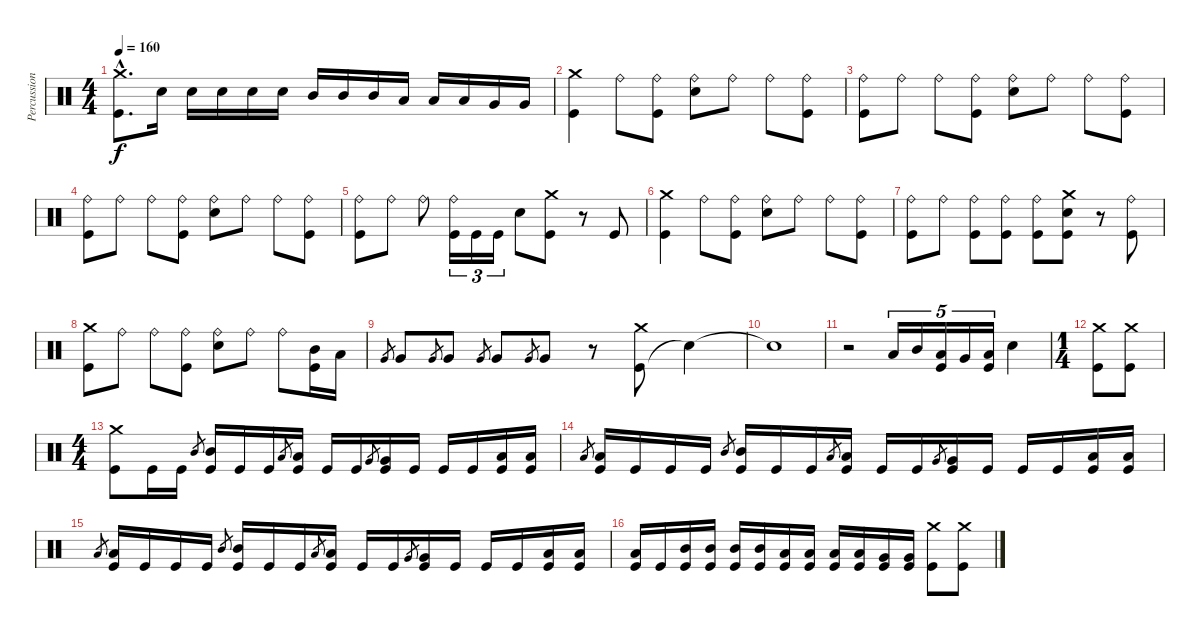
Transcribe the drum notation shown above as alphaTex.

\track ("Percussions" "Percussion") {instrument percussion}
\staff {score}
\articulation defaults
\ts (4 4)
\tempo 160
\clef neutral
\ks c
("Kick (hit)"{hac} "Crash medium (hit)"{hac}).8{d dy f} "Electric Snare (hit)".16 "Electric Snare (hit)".16 "Electric Snare (hit)".16 "Electric Snare (hit)".16 "Electric Snare (hit)".16 "Mid Tom (hit)".16 "Mid Tom (hit)".16 "Mid Tom (hit)".16 "Low Tom (hit)".16 "Low Tom (hit)".16 "Low Tom (hit)".16 "Very Low Tom (hit)".16 "Very Low Tom (hit)".16 |
("Kick (hit)" "Crash medium (hit)").4 "Ride (bell)".8 ("Kick (hit)" "Ride (bell)").8 ("Electric Snare (hit)" "Ride (bell)").8 "Ride (bell)".8 "Ride (bell)".8 ("Kick (hit)" "Ride (bell)").8 |
("Kick (hit)" "Ride (bell)").8 "Ride (bell)".8 "Ride (bell)".8 ("Kick (hit)" "Ride (bell)").8 ("Electric Snare (hit)" "Ride (bell)").8 "Ride (bell)".8 "Ride (bell)".8 ("Kick (hit)" "Ride (bell)").8 |
("Kick (hit)" "Ride (bell)").8 "Ride (bell)".8 "Ride (bell)".8 ("Kick (hit)" "Ride (bell)").8 ("Electric Snare (hit)" "Ride (bell)").8 "Ride (bell)".8 "Ride (bell)".8 ("Kick (hit)" "Ride (bell)").8 |
("Kick (hit)" "Ride (bell)").8 "Ride (bell)".8 "Ride (bell)".8 ("Kick (hit)" "Ride (bell)").16{tu (3 2)} "Kick (hit)".16{tu (3 2)} "Kick (hit)".16{tu (3 2)} "Electric Snare (hit)".8 ("Kick (hit)" "Crash medium (hit)").8 r.8 "Kick (hit)".8 |
("Kick (hit)" "Crash medium (hit)").4 "Ride (bell)".8 ("Kick (hit)" "Ride (bell)").8 ("Electric Snare (hit)" "Ride (bell)").8 "Ride (bell)".8 "Ride (bell)".8 ("Kick (hit)" "Ride (bell)").8 |
("Kick (hit)" "Ride (bell)").8 "Ride (bell)".8 ("Kick (hit)" "Ride (bell)").8 ("Kick (hit)" "Ride (bell)").8 ("Kick (hit)" "Ride (bell)").8 ("Kick (hit)" "Electric Snare (hit)" "Crash medium (hit)").8 r.8 ("Kick (hit)" "Ride (bell)").8 |
("Kick (hit)" "Crash medium (hit)").8 "Ride (bell)".8 "Ride (bell)".8 ("Kick (hit)" "Ride (bell)").8 ("Electric Snare (hit)" "Ride (bell)").8 "Ride (bell)".8 "Ride (bell)".8 ("Kick (hit)" "Mid Tom (hit)").16 "Low Tom (hit)".16 |
"Very Low Tom (hit)".8{gr} "Very Low Tom (hit)".8 "Very Low Tom (hit)".8{gr} "Very Low Tom (hit)".8 "Very Low Tom (hit)".8{gr} "Very Low Tom (hit)".8 "Very Low Tom (hit)".8{gr} "Very Low Tom (hit)".8 r.8 ("Kick (hit)" "Crash medium (hit)").8 "Snare (hit)"{t}.4 |
"Snare (hit)"{t}.1 |
r.2 "Low Tom (hit)".16{tu (5 4)} "Mid Tom (hit)".16{tu (5 4)} ("Kick (hit)" "Low Tom (hit)").16{tu (5 4)} "Very Low Tom (hit)".16{tu (5 4)} ("Kick (hit)" "Low Floor Tom (hit)").16{tu (5 4)} "Electric Snare (hit)".4 |
\ts (1 4)
("Kick (hit)" "Crash medium (hit)").8 ("Kick (hit)" "Crash medium (hit)").8 |
\ts (4 4)
("Kick (hit)" "Crash medium (hit)").8 "Kick (hit)".16 "Kick (hit)".16 "Mid Tom (hit)".8{gr} ("Kick (hit)" "Mid Tom (hit)").16 "Kick (hit)".16 "Kick (hit)".16 "Low Tom (hit)".8{gr} ("Kick (hit)" "Low Tom (hit)").16 "Kick (hit)".16 "Kick (hit)".16 "Very Low Tom (hit)".8{gr} ("Kick (hit)" "Very Low Tom (hit)").16 "Kick (hit)".16 "Kick (hit)".16 "Kick (hit)".16 ("Kick (hit)" "Low Floor Tom (hit)").16 ("Kick (hit)" "Low Floor Tom (hit)").16 |
"Low Floor Tom (hit)".8{gr} ("Kick (hit)" "Low Floor Tom (hit)").16 "Kick (hit)".16 "Kick (hit)".16 "Kick (hit)".16 "Mid Tom (hit)".8{gr} ("Kick (hit)" "Mid Tom (hit)").16 "Kick (hit)".16 "Kick (hit)".16 "Low Tom (hit)".8{gr} ("Kick (hit)" "Low Tom (hit)").16 "Kick (hit)".16 "Kick (hit)".16 "Very Low Tom (hit)".8{gr} ("Kick (hit)" "Very Low Tom (hit)").16 "Kick (hit)".16 "Kick (hit)".16 "Kick (hit)".16 ("Kick (hit)" "Low Floor Tom (hit)").16 ("Kick (hit)" "Low Floor Tom (hit)").16 |
"Low Floor Tom (hit)".8{gr} ("Kick (hit)" "Low Floor Tom (hit)").16 "Kick (hit)".16 "Kick (hit)".16 "Kick (hit)".16 "Mid Tom (hit)".8{gr} ("Kick (hit)" "Mid Tom (hit)").16 "Kick (hit)".16 "Kick (hit)".16 "Low Tom (hit)".8{gr} ("Kick (hit)" "Low Tom (hit)").16 "Kick (hit)".16 "Kick (hit)".16 "Very Low Tom (hit)".8{gr} ("Kick (hit)" "Very Low Tom (hit)").16 "Kick (hit)".16 "Kick (hit)".16 "Kick (hit)".16 ("Kick (hit)" "Low Floor Tom (hit)").16 ("Kick (hit)" "Low Floor Tom (hit)").16 |
("Kick (hit)" "Low Floor Tom (hit)").16 "Kick (hit)".16 ("Kick (hit)" "Mid Tom (hit)").16 ("Kick (hit)" "Mid Tom (hit)").16 ("Kick (hit)" "Mid Tom (hit)").16 ("Kick (hit)" "Mid Tom (hit)").16 ("Kick (hit)" "Low Tom (hit)").16 ("Kick (hit)" "Low Tom (hit)").16 ("Kick (hit)" "Low Tom (hit)").16 ("Kick (hit)" "Low Tom (hit)").16 ("Kick (hit)" "Very Low Tom (hit)").16 ("Kick (hit)" "Very Low Tom (hit)").16 ("Kick (hit)" "Crash medium (hit)").8 ("Kick (hit)" "Crash medium (hit)").8
